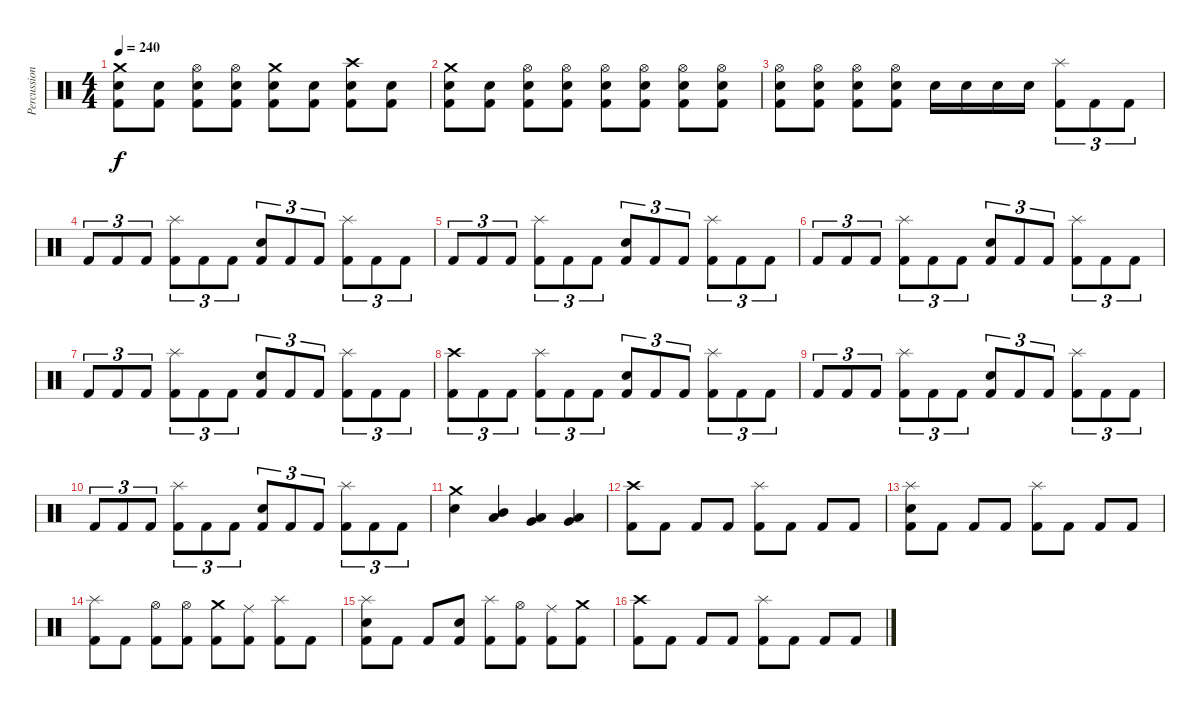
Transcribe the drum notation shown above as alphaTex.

\track ("Percussion" "Percussion") {solo instrument percussion}
\staff {score}
\articulation defaults
\ts (4 4)
\tempo 240
\clef neutral
\ks c
("Crash medium (hit)" "Electric Snare (hit)" "Kick (hit) 2").8{dy f} ("Electric Snare (hit)" "Kick (hit) 2").8 ("Hi-Hat (open)" "Electric Snare (hit)" "Kick (hit) 2").8 ("Hi-Hat (open)" "Electric Snare (hit)" "Kick (hit) 2").8 ("Crash medium (hit)" "Electric Snare (hit)" "Kick (hit) 2").8 ("Electric Snare (hit)" "Kick (hit) 2").8 ("Crash high (hit)" "Electric Snare (hit)" "Kick (hit) 2").8 ("Electric Snare (hit)" "Kick (hit) 2").8 |
("Crash medium (hit)" "Electric Snare (hit)" "Kick (hit) 2").8 ("Electric Snare (hit)" "Kick (hit) 2").8 ("Hi-Hat (open)" "Electric Snare (hit)" "Kick (hit) 2").8 ("Hi-Hat (open)" "Electric Snare (hit)" "Kick (hit) 2").8 ("Hi-Hat (open)" "Electric Snare (hit)" "Kick (hit) 2").8 ("Hi-Hat (open)" "Electric Snare (hit)" "Kick (hit) 2").8 ("Hi-Hat (open)" "Electric Snare (hit)" "Kick (hit) 2").8 ("Hi-Hat (open)" "Electric Snare (hit)" "Kick (hit) 2").8 |
("Hi-Hat (open)" "Electric Snare (hit)" "Kick (hit) 2").8 ("Hi-Hat (open)" "Electric Snare (hit)" "Kick (hit) 2").8 ("Hi-Hat (open)" "Electric Snare (hit)" "Kick (hit) 2").8 ("Hi-Hat (open)" "Electric Snare (hit)" "Kick (hit) 2").8 "Electric Snare (hit)".16 "Electric Snare (hit)".16 "Electric Snare (hit)".16 "Electric Snare (hit)".16 ("Splash (hit)" "Kick (hit) 2").8{tu (3 2)} "Kick (hit) 2".8{tu (3 2)} "Kick (hit) 2".8{tu (3 2)} |
"Kick (hit) 2".8{tu (3 2)} "Kick (hit) 2".8{tu (3 2)} "Kick (hit) 2".8{tu (3 2)} ("Splash (hit)" "Kick (hit) 2").8{tu (3 2)} "Kick (hit) 2".8{tu (3 2)} "Kick (hit) 2".8{tu (3 2)} ("Electric Snare (hit)" "Kick (hit) 2").8{tu (3 2)} "Kick (hit) 2".8{tu (3 2)} "Kick (hit) 2".8{tu (3 2)} ("Splash (hit)" "Kick (hit) 2").8{tu (3 2)} "Kick (hit) 2".8{tu (3 2)} "Kick (hit) 2".8{tu (3 2)} |
"Kick (hit) 2".8{tu (3 2)} "Kick (hit) 2".8{tu (3 2)} "Kick (hit) 2".8{tu (3 2)} ("Splash (hit)" "Kick (hit) 2").8{tu (3 2)} "Kick (hit) 2".8{tu (3 2)} "Kick (hit) 2".8{tu (3 2)} ("Electric Snare (hit)" "Kick (hit) 2").8{tu (3 2)} "Kick (hit) 2".8{tu (3 2)} "Kick (hit) 2".8{tu (3 2)} ("Splash (hit)" "Kick (hit) 2").8{tu (3 2)} "Kick (hit) 2".8{tu (3 2)} "Kick (hit) 2".8{tu (3 2)} |
"Kick (hit) 2".8{tu (3 2)} "Kick (hit) 2".8{tu (3 2)} "Kick (hit) 2".8{tu (3 2)} ("Splash (hit)" "Kick (hit) 2").8{tu (3 2)} "Kick (hit) 2".8{tu (3 2)} "Kick (hit) 2".8{tu (3 2)} ("Electric Snare (hit)" "Kick (hit) 2").8{tu (3 2)} "Kick (hit) 2".8{tu (3 2)} "Kick (hit) 2".8{tu (3 2)} ("Splash (hit)" "Kick (hit) 2").8{tu (3 2)} "Kick (hit) 2".8{tu (3 2)} "Kick (hit) 2".8{tu (3 2)} |
"Kick (hit) 2".8{tu (3 2)} "Kick (hit) 2".8{tu (3 2)} "Kick (hit) 2".8{tu (3 2)} ("Splash (hit)" "Kick (hit) 2").8{tu (3 2)} "Kick (hit) 2".8{tu (3 2)} "Kick (hit) 2".8{tu (3 2)} ("Electric Snare (hit)" "Kick (hit) 2").8{tu (3 2)} "Kick (hit) 2".8{tu (3 2)} "Kick (hit) 2".8{tu (3 2)} ("Splash (hit)" "Kick (hit) 2").8{tu (3 2)} "Kick (hit) 2".8{tu (3 2)} "Kick (hit) 2".8{tu (3 2)} |
("Crash high (hit)" "Kick (hit) 2").8{tu (3 2)} "Kick (hit) 2".8{tu (3 2)} "Kick (hit) 2".8{tu (3 2)} ("Splash (hit)" "Kick (hit) 2").8{tu (3 2)} "Kick (hit) 2".8{tu (3 2)} "Kick (hit) 2".8{tu (3 2)} ("Electric Snare (hit)" "Kick (hit) 2").8{tu (3 2)} "Kick (hit) 2".8{tu (3 2)} "Kick (hit) 2".8{tu (3 2)} ("Splash (hit)" "Kick (hit) 2").8{tu (3 2)} "Kick (hit) 2".8{tu (3 2)} "Kick (hit) 2".8{tu (3 2)} |
"Kick (hit) 2".8{tu (3 2)} "Kick (hit) 2".8{tu (3 2)} "Kick (hit) 2".8{tu (3 2)} ("Splash (hit)" "Kick (hit) 2").8{tu (3 2)} "Kick (hit) 2".8{tu (3 2)} "Kick (hit) 2".8{tu (3 2)} ("Electric Snare (hit)" "Kick (hit) 2").8{tu (3 2)} "Kick (hit) 2".8{tu (3 2)} "Kick (hit) 2".8{tu (3 2)} ("Splash (hit)" "Kick (hit) 2").8{tu (3 2)} "Kick (hit) 2".8{tu (3 2)} "Kick (hit) 2".8{tu (3 2)} |
"Kick (hit) 2".8{tu (3 2)} "Kick (hit) 2".8{tu (3 2)} "Kick (hit) 2".8{tu (3 2)} ("Splash (hit)" "Kick (hit) 2").8{tu (3 2)} "Kick (hit) 2".8{tu (3 2)} "Kick (hit) 2".8{tu (3 2)} ("Electric Snare (hit)" "Kick (hit) 2").8{tu (3 2)} "Kick (hit) 2".8{tu (3 2)} "Kick (hit) 2".8{tu (3 2)} ("Splash (hit)" "Kick (hit) 2").8{tu (3 2)} "Kick (hit) 2".8{tu (3 2)} "Kick (hit) 2".8{tu (3 2)} |
("Crash medium (hit)" "Electric Snare (hit)").4 ("Mid Tom (hit)" "Low Tom (hit)").4 ("Low Tom (hit)" "Very Low Tom (hit)").4 ("Very Low Tom (hit)" "Low Floor Tom (hit)").4 |
("Crash high (hit)" "Kick (hit) 2").8 "Kick (hit) 2".8 "Kick (hit) 2".8 "Kick (hit) 2".8 ("Splash (hit)" "Kick (hit) 2").8 "Kick (hit) 2".8 "Kick (hit) 2".8 "Kick (hit) 2".8 |
("Splash (hit)" "Electric Snare (hit)" "Kick (hit) 2").8 "Kick (hit) 2".8 "Kick (hit) 2".8 "Kick (hit) 2".8 ("Splash (hit)" "Kick (hit) 2").8 "Kick (hit) 2".8 "Kick (hit) 2".8 "Kick (hit) 2".8 |
("Splash (hit)" "Kick (hit) 2").8 "Kick (hit) 2".8 ("Hi-Hat (open)" "Kick (hit) 2").8 ("Hi-Hat (open)" "Kick (hit) 2").8 ("Crash medium (hit)" "Kick (hit) 2").8 ("Ride (middle)" "Kick (hit) 2").8 ("Splash (hit)" "Kick (hit) 2").8 "Kick (hit) 2".8 |
("Splash (hit)" "Electric Snare (hit)" "Kick (hit) 2").8 "Kick (hit) 2".8 "Kick (hit) 2".8 ("Electric Snare (hit)" "Kick (hit) 2").8 ("Splash (hit)" "Kick (hit) 2").8 ("Hi-Hat (open)" "Kick (hit) 2").8 ("Ride (middle)" "Kick (hit) 2").8 ("Crash medium (hit)" "Kick (hit) 2").8 |
("Crash high (hit)" "Kick (hit) 2").8 "Kick (hit) 2".8 "Kick (hit) 2".8 "Kick (hit) 2".8 ("Splash (hit)" "Kick (hit) 2").8 "Kick (hit) 2".8 "Kick (hit) 2".8 "Kick (hit) 2".8
